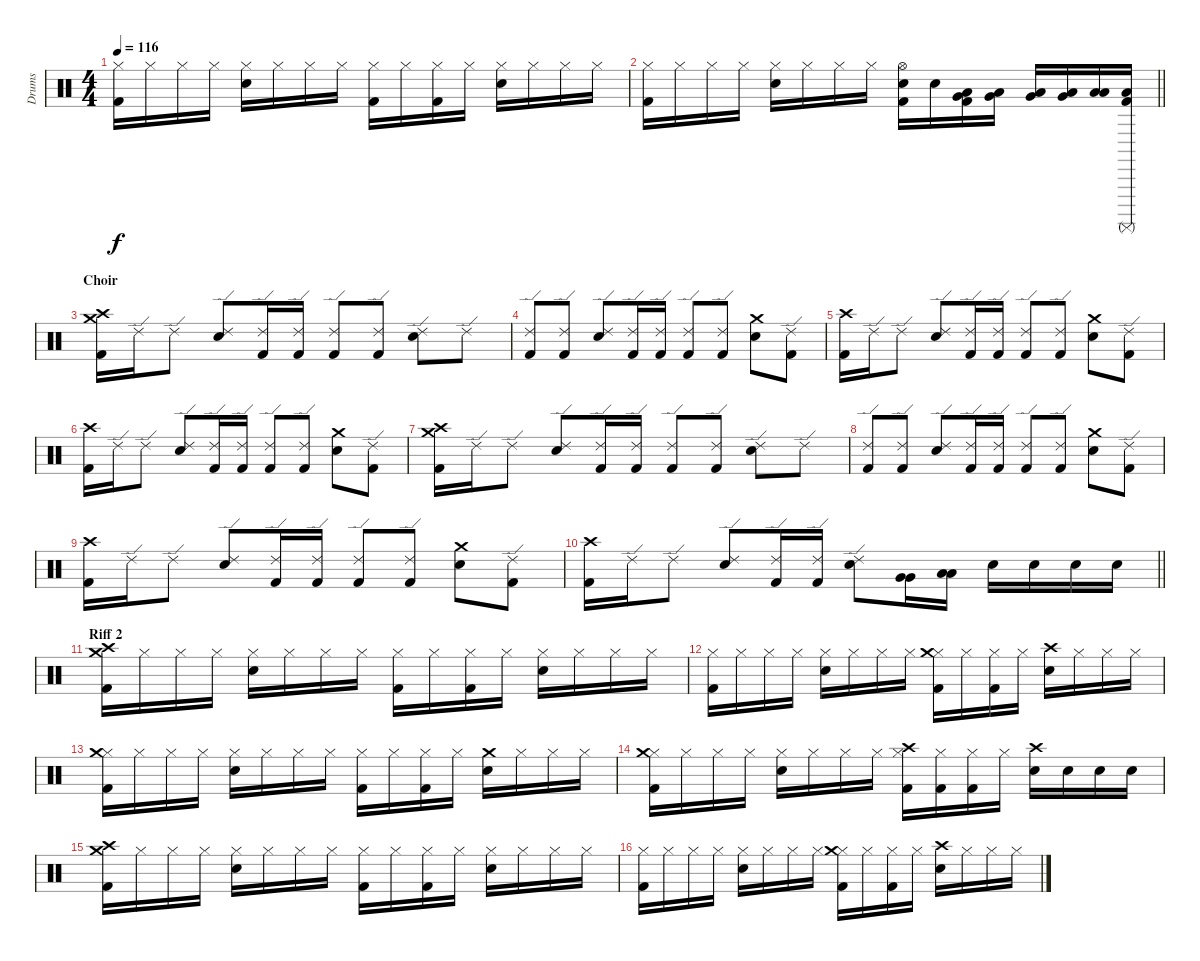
\track ("Drums" "Drums") {instrument percussion}
\staff {score}
\articulation defaults
\ts (4 4)
\tempo 116
\clef neutral
\ks c
("Hi-Hat (closed)" "Kick (hit) 2").16{dy f} "Hi-Hat (closed)".16 "Hi-Hat (closed)".16 "Hi-Hat (closed)".16 ("Hi-Hat (closed)" "Snare (hit) 2").16 "Hi-Hat (closed)".16 "Hi-Hat (closed)".16 "Hi-Hat (closed)".16 ("Hi-Hat (closed)" "Kick (hit) 2").16 "Hi-Hat (closed)".16 ("Hi-Hat (closed)" "Kick (hit) 2").16 "Hi-Hat (closed)".16 ("Hi-Hat (closed)" "Snare (hit) 2").16 "Hi-Hat (closed)".16 "Hi-Hat (closed)".16 "Hi-Hat (closed)".16 |
\barLineRight lightlight
("Hi-Hat (closed)" "Kick (hit) 2").16 "Hi-Hat (closed)".16 "Hi-Hat (closed)".16 "Hi-Hat (closed)".16 ("Hi-Hat (closed)" "Snare (hit) 2").16 "Hi-Hat (closed)".16 "Hi-Hat (closed)".16 "Hi-Hat (closed)".16 ("Hi-Hat (open)" "Kick (hit) 2" "Snare (hit) 2").16 "Snare (hit) 2".16 ("Kick (hit) 2" "Very Low Tom (hit)" "Low Floor Tom (hit)").16 ("Very Low Tom (hit)" "Low Floor Tom (hit)").16 ("Low Tom (hit)" "Very Low Tom (hit)").16 ("Low Tom (hit)" "Very Low Tom (hit)").16 ("Low Tom (hit)" "Low Tom (hit)").16 ("Kick (hit) 2" "Low Tom (hit)" "Surdo (mute)").16 |
\section ("" "Choir")
("Kick (hit) 2" "Crash medium (hit)" "Crash high (hit)").16 "Ride (edge) 2".16 "Ride (edge) 2".8 ("Ride (edge) 2" "Snare (hit) 2").8 ("Ride (edge) 2" "Kick (hit) 2").16 ("Ride (edge) 2" "Kick (hit) 2").16 ("Ride (edge) 2" "Kick (hit) 2").8 ("Ride (edge) 2" "Kick (hit) 2").8 ("Ride (edge) 2" "Snare (hit) 2").8 "Ride (edge) 2".8 |
("Ride (edge) 2" "Kick (hit) 2").8 ("Ride (edge) 2" "Kick (hit) 2").8 ("Ride (edge) 2" "Snare (hit) 2").8 ("Ride (edge) 2" "Kick (hit) 2").16 ("Ride (edge) 2" "Kick (hit) 2").16 ("Ride (edge) 2" "Kick (hit) 2").8 ("Ride (edge) 2" "Kick (hit) 2").8 ("Snare (hit) 2" "Crash medium (hit)").8 ("Ride (edge) 2" "Kick (hit) 2").8 |
("Kick (hit) 2" "Crash high (hit)").16 "Ride (edge) 2".16 "Ride (edge) 2".8 ("Ride (edge) 2" "Snare (hit) 2").8 ("Ride (edge) 2" "Kick (hit) 2").16 ("Ride (edge) 2" "Kick (hit) 2").16 ("Ride (edge) 2" "Kick (hit) 2").8 ("Ride (edge) 2" "Kick (hit) 2").8 ("Snare (hit) 2" "Crash medium (hit)").8 ("Ride (edge) 2" "Kick (hit) 2").8 |
("Kick (hit) 2" "Crash high (hit)").16 "Ride (edge) 2".16 "Ride (edge) 2".8 ("Ride (edge) 2" "Snare (hit) 2").8 ("Ride (edge) 2" "Kick (hit) 2").16 ("Ride (edge) 2" "Kick (hit) 2").16 ("Ride (edge) 2" "Kick (hit) 2").8 ("Ride (edge) 2" "Kick (hit) 2").8 ("Snare (hit) 2" "Crash medium (hit)").8 ("Ride (edge) 2" "Kick (hit) 2").8 |
("Kick (hit) 2" "Crash medium (hit)" "Crash high (hit)").16 "Ride (edge) 2".16 "Ride (edge) 2".8 ("Ride (edge) 2" "Snare (hit) 2").8 ("Ride (edge) 2" "Kick (hit) 2").16 ("Ride (edge) 2" "Kick (hit) 2").16 ("Ride (edge) 2" "Kick (hit) 2").8 ("Ride (edge) 2" "Kick (hit) 2").8 ("Ride (edge) 2" "Snare (hit) 2").8 "Ride (edge) 2".8 |
("Ride (edge) 2" "Kick (hit) 2").8 ("Ride (edge) 2" "Kick (hit) 2").8 ("Ride (edge) 2" "Snare (hit) 2").8 ("Ride (edge) 2" "Kick (hit) 2").16 ("Ride (edge) 2" "Kick (hit) 2").16 ("Ride (edge) 2" "Kick (hit) 2").8 ("Ride (edge) 2" "Kick (hit) 2").8 ("Snare (hit) 2" "Crash medium (hit)").8 ("Ride (edge) 2" "Kick (hit) 2").8 |
("Kick (hit) 2" "Crash high (hit)").16 "Ride (edge) 2".16 "Ride (edge) 2".8 ("Ride (edge) 2" "Snare (hit) 2").8 ("Ride (edge) 2" "Kick (hit) 2").16 ("Ride (edge) 2" "Kick (hit) 2").16 ("Ride (edge) 2" "Kick (hit) 2").8 ("Ride (edge) 2" "Kick (hit) 2").8 ("Snare (hit) 2" "Crash medium (hit)").8 ("Ride (edge) 2" "Kick (hit) 2").8 |
\barLineRight lightlight
("Kick (hit) 2" "Crash high (hit)").16 "Ride (edge) 2".16 "Ride (edge) 2".8 ("Ride (edge) 2" "Snare (hit) 2").8 ("Ride (edge) 2" "Kick (hit) 2").16 ("Ride (edge) 2" "Kick (hit) 2").16 ("Ride (edge) 2" "Snare (hit) 2").8 ("Very Low Tom (hit)" "Very Low Tom (hit)").16 ("Low Tom (hit)" "Low Tom (hit)").16 "Snare (hit) 2".16 "Snare (hit) 2".16 "Snare (hit) 2".16 "Snare (hit) 2".16 |
\section ("" "Riff 2")
("Kick (hit) 2" "Crash medium (hit)" "Crash high (hit)").16 "Hi-Hat (closed)".16 "Hi-Hat (closed)".16 "Hi-Hat (closed)".16 ("Hi-Hat (closed)" "Snare (hit) 2").16 "Hi-Hat (closed)".16 "Hi-Hat (closed)".16 "Hi-Hat (closed)".16 ("Hi-Hat (closed)" "Kick (hit) 2").16 "Hi-Hat (closed)".16 ("Hi-Hat (closed)" "Kick (hit) 2").16 "Hi-Hat (closed)".16 ("Hi-Hat (closed)" "Snare (hit) 2").16 "Hi-Hat (closed)".16 "Hi-Hat (closed)".16 "Hi-Hat (closed)".16 |
("Hi-Hat (closed)" "Kick (hit) 2").16 "Hi-Hat (closed)".16 "Hi-Hat (closed)".16 "Hi-Hat (closed)".16 ("Hi-Hat (closed)" "Snare (hit) 2").16 "Hi-Hat (closed)".16 "Hi-Hat (closed)".16 "Hi-Hat (closed)".16 ("Hi-Hat (closed)" "Kick (hit) 2" "Crash medium (hit)").16 "Hi-Hat (closed)".16 ("Hi-Hat (closed)" "Kick (hit) 2").16 "Hi-Hat (closed)".16 ("Snare (hit) 2" "Crash high (hit)").16 "Hi-Hat (closed)".16 "Hi-Hat (closed)".16 "Hi-Hat (closed)".16 |
("Hi-Hat (closed)" "Kick (hit) 2" "Crash medium (hit)").16 "Hi-Hat (closed)".16 "Hi-Hat (closed)".16 "Hi-Hat (closed)".16 ("Hi-Hat (closed)" "Snare (hit) 2").16 "Hi-Hat (closed)".16 "Hi-Hat (closed)".16 "Hi-Hat (closed)".16 ("Hi-Hat (closed)" "Kick (hit) 2").16 "Hi-Hat (closed)".16 ("Hi-Hat (closed)" "Kick (hit) 2").16 "Hi-Hat (closed)".16 ("Snare (hit) 2" "Crash medium (hit)").16 "Hi-Hat (closed)".16 "Hi-Hat (closed)".16 "Hi-Hat (closed)".16 |
("Hi-Hat (closed)" "Kick (hit) 2" "Crash medium (hit)").16 "Hi-Hat (closed)".16 "Hi-Hat (closed)".16 "Hi-Hat (closed)".16 ("Hi-Hat (closed)" "Snare (hit) 2").16 "Hi-Hat (closed)".16 "Hi-Hat (closed)".16 "Hi-Hat (closed)".16 ("Hi-Hat (closed)" "Kick (hit) 2" "Crash high (hit)").16 ("Hi-Hat (closed)" "Kick (hit) 2").16 ("Hi-Hat (closed)" "Kick (hit) 2").16 "Hi-Hat (closed)".16 ("Snare (hit) 2" "Crash high (hit)").16 "Snare (hit) 2".16 "Snare (hit) 2".16 "Snare (hit) 2".16 |
("Kick (hit) 2" "Crash medium (hit)" "Crash high (hit)").16 "Hi-Hat (closed)".16 "Hi-Hat (closed)".16 "Hi-Hat (closed)".16 ("Hi-Hat (closed)" "Snare (hit) 2").16 "Hi-Hat (closed)".16 "Hi-Hat (closed)".16 "Hi-Hat (closed)".16 ("Hi-Hat (closed)" "Kick (hit) 2").16 "Hi-Hat (closed)".16 ("Hi-Hat (closed)" "Kick (hit) 2").16 "Hi-Hat (closed)".16 ("Hi-Hat (closed)" "Snare (hit) 2").16 "Hi-Hat (closed)".16 "Hi-Hat (closed)".16 "Hi-Hat (closed)".16 |
("Hi-Hat (closed)" "Kick (hit) 2").16 "Hi-Hat (closed)".16 "Hi-Hat (closed)".16 "Hi-Hat (closed)".16 ("Hi-Hat (closed)" "Snare (hit) 2").16 "Hi-Hat (closed)".16 "Hi-Hat (closed)".16 "Hi-Hat (closed)".16 ("Hi-Hat (closed)" "Kick (hit) 2" "Crash medium (hit)").16 "Hi-Hat (closed)".16 ("Hi-Hat (closed)" "Kick (hit) 2").16 "Hi-Hat (closed)".16 ("Snare (hit) 2" "Crash high (hit)").16 "Hi-Hat (closed)".16 "Hi-Hat (closed)".16 "Hi-Hat (closed)".16
